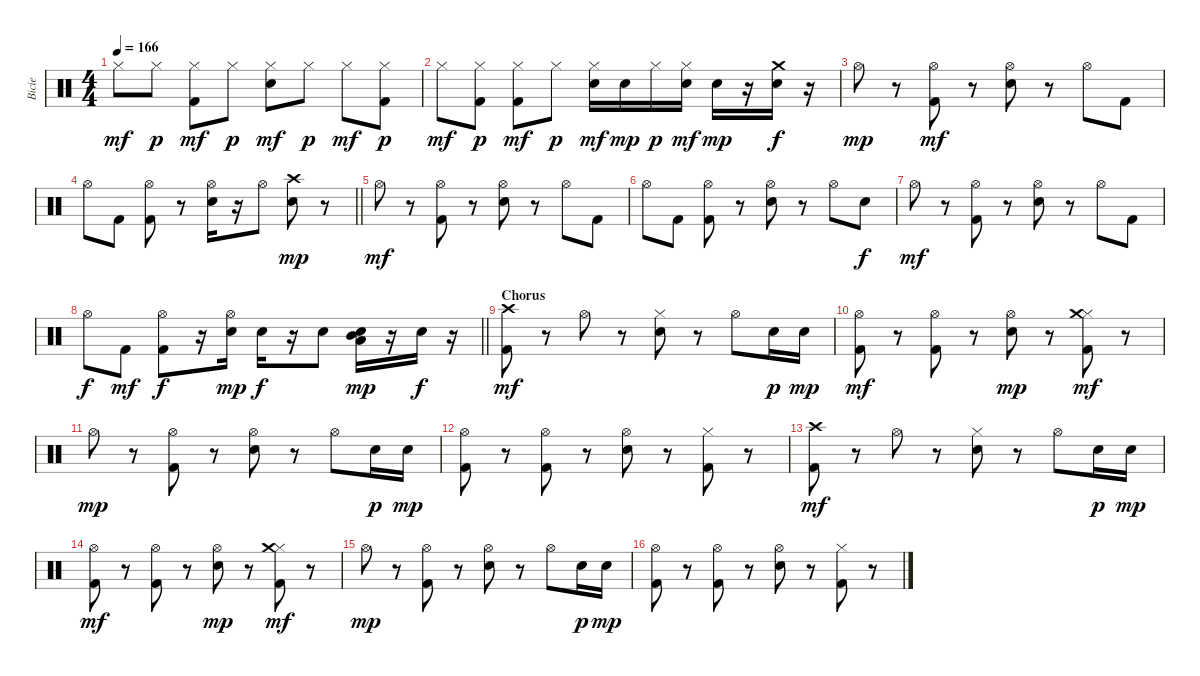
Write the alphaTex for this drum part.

\track ("Bicie" "Bicie") {instrument percussion}
\staff {score}
\articulation defaults
\ts (4 4)
\tempo 166
\clef neutral
\ks c "Hi-Hat (closed)".8{dy mf} "Hi-Hat (closed)".8{dy p}
("Kick (hit) 2" "Hi-Hat (closed)").8{dy mf} "Hi-Hat (closed)".8{dy p} ("Electric Snare (hit)" "Hi-Hat (closed)").8{dy mf} "Hi-Hat (closed)".8{dy p} "Hi-Hat (closed)".8{dy mf} ("Kick (hit) 2" "Hi-Hat (closed)").8{dy p} |
"Hi-Hat (closed)".8{dy mf} ("Kick (hit) 2" "Hi-Hat (closed)").8{dy p} ("Kick (hit) 2" "Hi-Hat (closed)").8{dy mf} "Hi-Hat (closed)".8{dy p} ("Electric Snare (hit)" "Hi-Hat (closed)").16{dy mf} "Electric Snare (hit)".16{dy mp} "Hi-Hat (closed)".16{dy p} ("Electric Snare (hit)" "Hi-Hat (closed)").16{dy mf} "Electric Snare (hit)".16{dy mp} r.16 ("Electric Snare (hit)" "Crash medium (hit)").16{dy f} r.16 |
"Hi-Hat (open)".8{dy mp} r.8 ("Kick (hit) 2" "Hi-Hat (open)").8{dy mf} r.8 ("Electric Snare (hit)" "Hi-Hat (open)").8 r.8 "Hi-Hat (open)".8 "Kick (hit) 2".8 |
\barLineRight lightlight "Hi-Hat (open)".8 "Kick (hit) 2".8
("Kick (hit) 2" "Hi-Hat (open)").8 r.8 ("Electric Snare (hit)" "Hi-Hat (open)").16 r.16 "Hi-Hat (open)".8 ("Electric Snare (hit)" "Crash high (hit)").8{dy mp} r.8 |
"Hi-Hat (open)".8{dy mf} r.8 ("Kick (hit) 2" "Hi-Hat (open)").8 r.8 ("Electric Snare (hit)" "Hi-Hat (open)").8 r.8 "Hi-Hat (open)".8 "Kick (hit) 2".8 |
"Hi-Hat (open)".8 "Kick (hit) 2".8 ("Kick (hit) 2" "Hi-Hat (open)").8 r.8 ("Electric Snare (hit)" "Hi-Hat (open)").8 r.8 "Hi-Hat (open)".8 "Electric Snare (hit)".8{dy f} |
"Hi-Hat (open)".8{dy mf} r.8 ("Kick (hit) 2" "Hi-Hat (open)").8 r.8 ("Electric Snare (hit)" "Hi-Hat (open)").8 r.8 "Hi-Hat (open)".8 "Kick (hit) 2".8 |
\barLineRight lightlight "Hi-Hat (open)".8{dy f} "Kick (hit) 2".8{dy mf}
("Kick (hit) 2" "Hi-Hat (open)").8{dy f} r.16 ("Hi-Hat (open)" "Electric Snare (hit)").16{dy mp} "Electric Snare (hit)".16{dy f} r.16 "Electric Snare (hit)".8 ("Low Tom (hit)" "Mid Tom (hit)" "Electric Snare (hit)").16{dy mp} r.16 "Electric Snare (hit)".16{dy f} r.16 |
\section ("" "Chorus")
("Crash high (hit)" "Kick (hit) 2").8{dy mf} r.8 "Hi-Hat (open)".8 r.8 ("Hi-Hat (closed)" "Electric Snare (hit)").8 r.8 "Hi-Hat (open)".8 "Electric Snare (hit)".16{dy p} "Electric Snare (hit)".16{dy mp} |
("Hi-Hat (open)" "Kick (hit) 2").8{dy mf} r.8 ("Hi-Hat (open)" "Kick (hit) 2").8 r.8 ("Hi-Hat (open)" "Electric Snare (hit)").8{dy mp} r.8 ("Hi-Hat (closed)" "Crash medium (hit)" "Kick (hit) 2").8{dy mf} r.8 |
"Hi-Hat (open)".8{dy mp} r.8 ("Hi-Hat (open)" "Kick (hit) 2").8 r.8 ("Hi-Hat (open)" "Electric Snare (hit)").8 r.8 "Hi-Hat (open)".8 "Electric Snare (hit)".16{dy p} "Electric Snare (hit)".16{dy mp} |
("Hi-Hat (open)" "Kick (hit) 2").8 r.8 ("Hi-Hat (open)" "Kick (hit) 2").8 r.8 ("Hi-Hat (open)" "Electric Snare (hit)").8 r.8 ("Hi-Hat (closed)" "Kick (hit) 2").8 r.8 |
("Crash high (hit)" "Kick (hit) 2").8{dy mf} r.8 "Hi-Hat (open)".8 r.8 ("Hi-Hat (closed)" "Electric Snare (hit)").8 r.8 "Hi-Hat (open)".8 "Electric Snare (hit)".16{dy p} "Electric Snare (hit)".16{dy mp} |
("Hi-Hat (open)" "Kick (hit) 2").8{dy mf} r.8 ("Hi-Hat (open)" "Kick (hit) 2").8 r.8 ("Hi-Hat (open)" "Electric Snare (hit)").8{dy mp} r.8 ("Hi-Hat (closed)" "Crash medium (hit)" "Kick (hit) 2").8{dy mf} r.8 |
"Hi-Hat (open)".8{dy mp} r.8 ("Hi-Hat (open)" "Kick (hit) 2").8 r.8 ("Hi-Hat (open)" "Electric Snare (hit)").8 r.8 "Hi-Hat (open)".8 "Electric Snare (hit)".16{dy p} "Electric Snare (hit)".16{dy mp} |
("Hi-Hat (open)" "Kick (hit) 2").8 r.8 ("Hi-Hat (open)" "Kick (hit) 2").8 r.8 ("Hi-Hat (open)" "Electric Snare (hit)").8 r.8 ("Hi-Hat (closed)" "Kick (hit) 2").8 r.8
